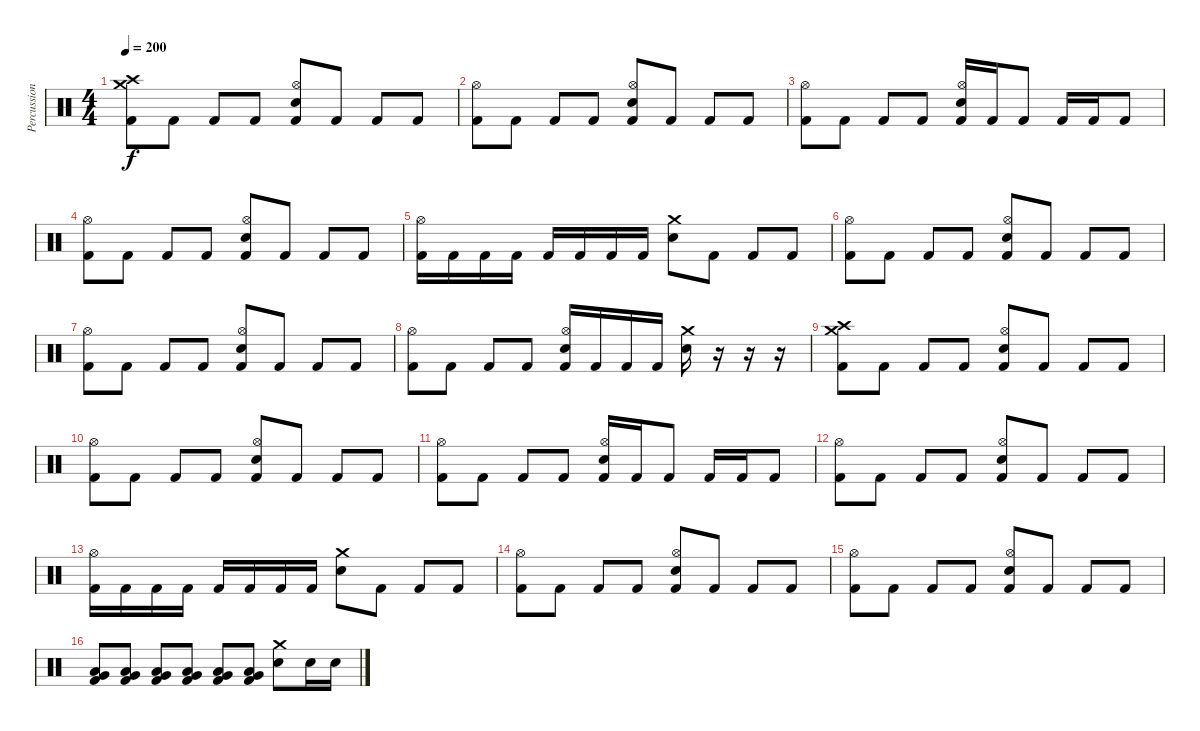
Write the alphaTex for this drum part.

\track ("Percussion" "Percussion") {instrument percussion}
\staff {score}
\articulation defaults
\ts (4 4)
\tempo 200
\clef neutral
\ks c
("Crash high (hit)" "Crash medium (hit)" "Kick (hit) 2").8{dy f} "Kick (hit) 2".8 "Kick (hit) 2".8 "Kick (hit) 2".8 ("Hi-Hat (open)" "Snare (hit) 2" "Kick (hit) 2").8 "Kick (hit) 2".8 "Kick (hit) 2".8 "Kick (hit) 2".8 |
("Hi-Hat (open)" "Kick (hit) 2").8 "Kick (hit) 2".8 "Kick (hit) 2".8 "Kick (hit) 2".8 ("Hi-Hat (open)" "Snare (hit) 2" "Kick (hit) 2").8 "Kick (hit) 2".8 "Kick (hit) 2".8 "Kick (hit) 2".8 |
("Hi-Hat (open)" "Kick (hit) 2").8 "Kick (hit) 2".8 "Kick (hit) 2".8 "Kick (hit) 2".8 ("Hi-Hat (open)" "Snare (hit) 2" "Kick (hit) 2").16 "Kick (hit) 2".16 "Kick (hit) 2".8 "Kick (hit) 2".16 "Kick (hit) 2".16 "Kick (hit) 2".8 |
("Hi-Hat (open)" "Kick (hit) 2").8 "Kick (hit) 2".8 "Kick (hit) 2".8 "Kick (hit) 2".8 ("Hi-Hat (open)" "Snare (hit) 2" "Kick (hit) 2").8 "Kick (hit) 2".8 "Kick (hit) 2".8 "Kick (hit) 2".8 |
("Hi-Hat (open)" "Kick (hit) 2").16 "Kick (hit) 2".16 "Kick (hit) 2".16 "Kick (hit) 2".16 "Kick (hit) 2".16 "Kick (hit) 2".16 "Kick (hit) 2".16 "Kick (hit) 2".16 ("Crash medium (hit)" "Snare (hit) 2").8 "Kick (hit) 2".8 "Kick (hit) 2".8 "Kick (hit) 2".8 |
("Hi-Hat (open)" "Kick (hit) 2").8 "Kick (hit) 2".8 "Kick (hit) 2".8 "Kick (hit) 2".8 ("Hi-Hat (open)" "Snare (hit) 2" "Kick (hit) 2").8 "Kick (hit) 2".8 "Kick (hit) 2".8 "Kick (hit) 2".8 |
("Hi-Hat (open)" "Kick (hit) 2").8 "Kick (hit) 2".8 "Kick (hit) 2".8 "Kick (hit) 2".8 ("Hi-Hat (open)" "Snare (hit) 2" "Kick (hit) 2").8 "Kick (hit) 2".8 "Kick (hit) 2".8 "Kick (hit) 2".8 |
("Hi-Hat (open)" "Kick (hit) 2").8 "Kick (hit) 2".8 "Kick (hit) 2".8 "Kick (hit) 2".8 ("Hi-Hat (open)" "Snare (hit) 2" "Kick (hit) 2").16 "Kick (hit) 2".16 "Kick (hit) 2".16 "Kick (hit) 2".16 ("Crash medium (hit)" "Snare (hit) 2").16 r.16 r.16 r.16 |
("Crash high (hit)" "Crash medium (hit)" "Kick (hit) 2").8 "Kick (hit) 2".8 "Kick (hit) 2".8 "Kick (hit) 2".8 ("Hi-Hat (open)" "Snare (hit) 2" "Kick (hit) 2").8 "Kick (hit) 2".8 "Kick (hit) 2".8 "Kick (hit) 2".8 |
("Hi-Hat (open)" "Kick (hit) 2").8 "Kick (hit) 2".8 "Kick (hit) 2".8 "Kick (hit) 2".8 ("Hi-Hat (open)" "Snare (hit) 2" "Kick (hit) 2").8 "Kick (hit) 2".8 "Kick (hit) 2".8 "Kick (hit) 2".8 |
("Hi-Hat (open)" "Kick (hit) 2").8 "Kick (hit) 2".8 "Kick (hit) 2".8 "Kick (hit) 2".8 ("Hi-Hat (open)" "Snare (hit) 2" "Kick (hit) 2").16 "Kick (hit) 2".16 "Kick (hit) 2".8 "Kick (hit) 2".16 "Kick (hit) 2".16 "Kick (hit) 2".8 |
("Hi-Hat (open)" "Kick (hit) 2").8 "Kick (hit) 2".8 "Kick (hit) 2".8 "Kick (hit) 2".8 ("Hi-Hat (open)" "Snare (hit) 2" "Kick (hit) 2").8 "Kick (hit) 2".8 "Kick (hit) 2".8 "Kick (hit) 2".8 |
("Hi-Hat (open)" "Kick (hit) 2").16 "Kick (hit) 2".16 "Kick (hit) 2".16 "Kick (hit) 2".16 "Kick (hit) 2".16 "Kick (hit) 2".16 "Kick (hit) 2".16 "Kick (hit) 2".16 ("Crash medium (hit)" "Snare (hit) 2").8 "Kick (hit) 2".8 "Kick (hit) 2".8 "Kick (hit) 2".8 |
("Hi-Hat (open)" "Kick (hit) 2").8 "Kick (hit) 2".8 "Kick (hit) 2".8 "Kick (hit) 2".8 ("Hi-Hat (open)" "Snare (hit) 2" "Kick (hit) 2").8 "Kick (hit) 2".8 "Kick (hit) 2".8 "Kick (hit) 2".8 |
("Hi-Hat (open)" "Kick (hit) 2").8 "Kick (hit) 2".8 "Kick (hit) 2".8 "Kick (hit) 2".8 ("Hi-Hat (open)" "Snare (hit) 2" "Kick (hit) 2").8 "Kick (hit) 2".8 "Kick (hit) 2".8 "Kick (hit) 2".8 |
("Very Low Tom (hit)" "Low Floor Tom (hit)" "Kick (hit) 2").8 ("Very Low Tom (hit)" "Low Floor Tom (hit)" "Kick (hit) 2").8 ("Very Low Tom (hit)" "Low Floor Tom (hit)" "Kick (hit) 2").8 ("Very Low Tom (hit)" "Low Floor Tom (hit)" "Kick (hit) 2").8 ("Very Low Tom (hit)" "Low Floor Tom (hit)" "Kick (hit) 2").8 ("Very Low Tom (hit)" "Low Floor Tom (hit)" "Kick (hit) 2").8 ("Crash medium (hit)" "Snare (hit) 2").8 "Snare (hit) 2".16 "Snare (hit) 2".16
